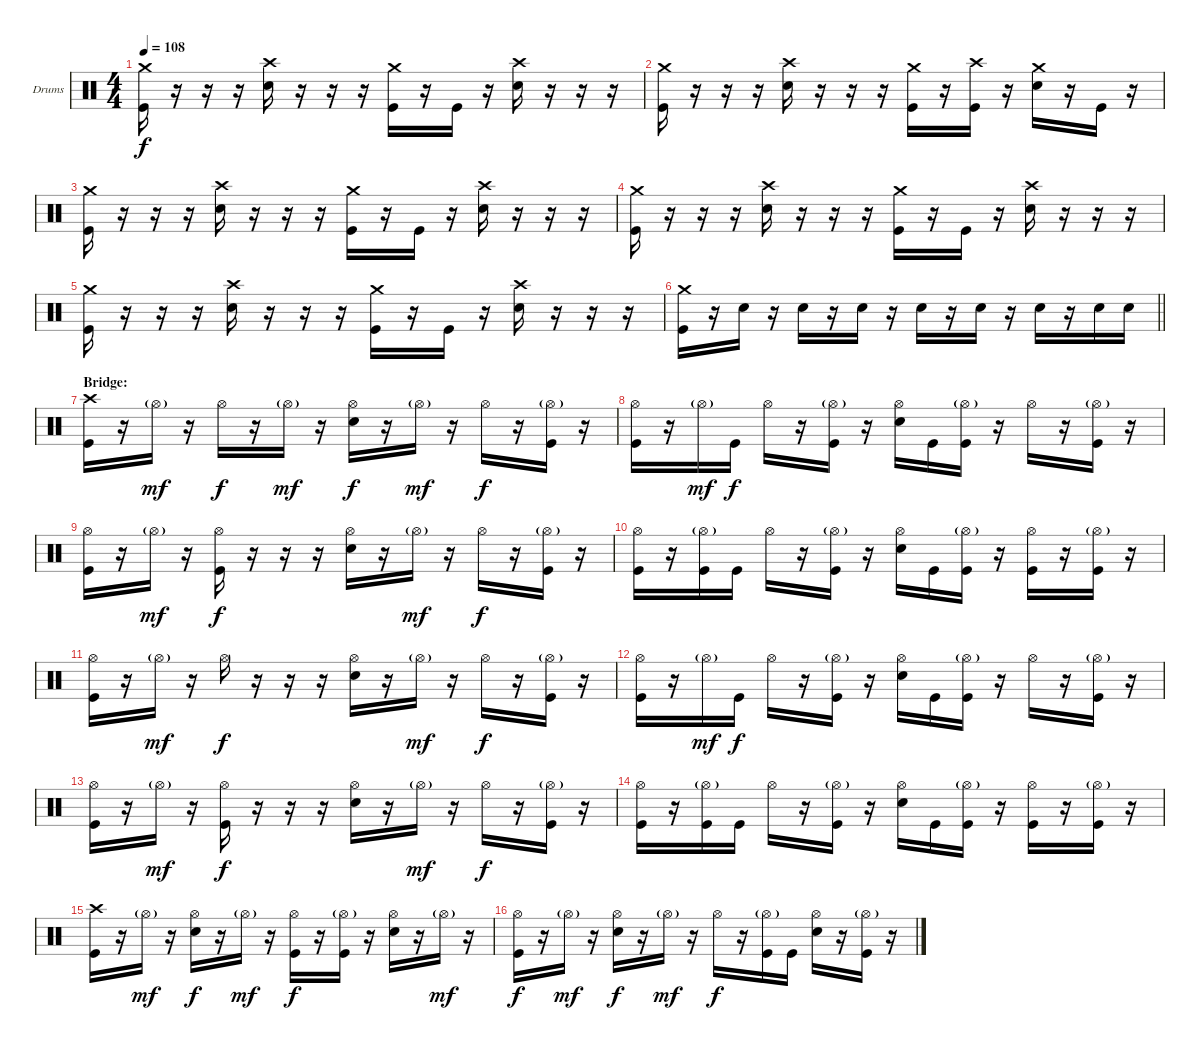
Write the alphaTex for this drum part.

\bracketExtendMode groupsimilarinstruments
\firstSystemTrackNameOrientation horizontal
\otherSystemsTrackNameOrientation horizontal
\track ("Drumkit" "Drums") {instrument percussion}
\staff {score}
\articulation defaults
\ts (4 4)
\tempo 108
\clef neutral
\ks c
("Kick (hit)" "Crash medium (hit)").16{dy f} r.16 r.16 r.16 ("Snare (hit) 2" "Crash high (hit)").16 r.16 r.16 r.16 ("Kick (hit)" "Crash medium (hit)").16 r.16 "Kick (hit)".16 r.16 ("Snare (hit) 2" "Crash high (hit)").16 r.16 r.16 r.16 |
("Kick (hit)" "Crash medium (hit)").16 r.16 r.16 r.16 ("Snare (hit) 2" "Crash high (hit)").16 r.16 r.16 r.16 ("Kick (hit)" "Crash medium (hit)").16 r.16 ("Kick (hit)" "Crash high (hit)").16 r.16 ("Snare (hit) 2" "Crash medium (hit)").16 r.16 "Kick (hit)".16 r.16 |
("Kick (hit)" "Crash medium (hit)").16 r.16 r.16 r.16 ("Snare (hit) 2" "Crash high (hit)").16 r.16 r.16 r.16 ("Kick (hit)" "Crash medium (hit)").16 r.16 "Kick (hit)".16 r.16 ("Snare (hit) 2" "Crash high (hit)").16 r.16 r.16 r.16 |
("Kick (hit)" "Crash medium (hit)").16 r.16 r.16 r.16 ("Snare (hit) 2" "Crash high (hit)").16 r.16 r.16 r.16 ("Kick (hit)" "Crash medium (hit)").16 r.16 "Kick (hit)".16 r.16 ("Snare (hit) 2" "Crash high (hit)").16 r.16 r.16 r.16 |
("Kick (hit)" "Crash medium (hit)").16 r.16 r.16 r.16 ("Snare (hit) 2" "Crash high (hit)").16 r.16 r.16 r.16 ("Kick (hit)" "Crash medium (hit)").16 r.16 "Kick (hit)".16 r.16 ("Snare (hit) 2" "Crash high (hit)").16 r.16 r.16 r.16 |
\barLineRight lightlight
("Kick (hit)" "Crash medium (hit)").16 r.16 "Snare (hit) 2".16 r.16 "Snare (hit) 2".16 r.16 "Snare (hit) 2".16 r.16 "Snare (hit) 2".16 r.16 "Snare (hit) 2".16 r.16 "Snare (hit) 2".16 r.16 "Snare (hit) 2".16 "Snare (hit) 2".16 |
\section ("" "Bridge:")
("Kick (hit)" "Crash high (hit)").16 r.16 "Hi-Hat (open)"{g}.16{dy mf} r.16 "Hi-Hat (open)".16{dy f} r.16 "Hi-Hat (open)"{g}.16{dy mf} r.16 ("Snare (hit) 2" "Hi-Hat (open)").16{dy f} r.16 "Hi-Hat (open)"{g}.16{dy mf} r.16 "Hi-Hat (open)".16{dy f} r.16 ("Kick (hit)" "Hi-Hat (open)"{g}).16 r.16 |
("Kick (hit)" "Hi-Hat (open)").16 r.16 "Hi-Hat (open)"{g}.16{dy mf} "Kick (hit)".16{dy f} "Hi-Hat (open)".16 r.16 ("Kick (hit)" "Hi-Hat (open)"{g}).16 r.16 ("Snare (hit) 2" "Hi-Hat (open)").16 "Kick (hit)".16 ("Kick (hit)" "Hi-Hat (open)"{g}).16 r.16 "Hi-Hat (open)".16 r.16 ("Kick (hit)" "Hi-Hat (open)"{g}).16 r.16 |
("Kick (hit)" "Hi-Hat (open)").16 r.16 "Hi-Hat (open)"{g}.16{dy mf} r.16 ("Kick (hit)" "Hi-Hat (open)").16{dy f} r.16 r.16 r.16 ("Snare (hit) 2" "Hi-Hat (open)").16 r.16 "Hi-Hat (open)"{g}.16{dy mf} r.16 "Hi-Hat (open)".16{dy f} r.16 ("Kick (hit)" "Hi-Hat (open)"{g}).16 r.16 |
("Kick (hit)" "Hi-Hat (open)").16 r.16 ("Kick (hit)" "Hi-Hat (open)"{g}).16 "Kick (hit)".16 "Hi-Hat (open)".16 r.16 ("Kick (hit)" "Hi-Hat (open)"{g}).16 r.16 ("Snare (hit) 2" "Hi-Hat (open)").16 "Kick (hit)".16 ("Kick (hit)" "Hi-Hat (open)"{g}).16 r.16 ("Kick (hit)" "Hi-Hat (open)").16 r.16 ("Kick (hit)" "Hi-Hat (open)"{g}).16 r.16 |
("Kick (hit)" "Hi-Hat (open)").16 r.16 "Hi-Hat (open)"{g}.16{dy mf} r.16 "Hi-Hat (open)".16{dy f} r.16 r.16 r.16 ("Snare (hit) 2" "Hi-Hat (open)").16 r.16 "Hi-Hat (open)"{g}.16{dy mf} r.16 "Hi-Hat (open)".16{dy f} r.16 ("Kick (hit)" "Hi-Hat (open)"{g}).16 r.16 |
("Kick (hit)" "Hi-Hat (open)").16 r.16 "Hi-Hat (open)"{g}.16{dy mf} "Kick (hit)".16{dy f} "Hi-Hat (open)".16 r.16 ("Kick (hit)" "Hi-Hat (open)"{g}).16 r.16 ("Snare (hit) 2" "Hi-Hat (open)").16 "Kick (hit)".16 ("Kick (hit)" "Hi-Hat (open)"{g}).16 r.16 "Hi-Hat (open)".16 r.16 ("Kick (hit)" "Hi-Hat (open)"{g}).16 r.16 |
("Kick (hit)" "Hi-Hat (open)").16 r.16 "Hi-Hat (open)"{g}.16{dy mf} r.16 ("Kick (hit)" "Hi-Hat (open)").16{dy f} r.16 r.16 r.16 ("Snare (hit) 2" "Hi-Hat (open)").16 r.16 "Hi-Hat (open)"{g}.16{dy mf} r.16 "Hi-Hat (open)".16{dy f} r.16 ("Kick (hit)" "Hi-Hat (open)"{g}).16 r.16 |
("Kick (hit)" "Hi-Hat (open)").16 r.16 ("Kick (hit)" "Hi-Hat (open)"{g}).16 "Kick (hit)".16 "Hi-Hat (open)".16 r.16 ("Kick (hit)" "Hi-Hat (open)"{g}).16 r.16 ("Snare (hit) 2" "Hi-Hat (open)").16 "Kick (hit)".16 ("Kick (hit)" "Hi-Hat (open)"{g}).16 r.16 ("Kick (hit)" "Hi-Hat (open)").16 r.16 ("Kick (hit)" "Hi-Hat (open)"{g}).16 r.16 |
("Kick (hit)" "Crash high (hit)").16 r.16 "Hi-Hat (open)"{g}.16{dy mf} r.16 ("Snare (hit) 2" "Hi-Hat (open)").16{dy f} r.16 "Hi-Hat (open)"{g}.16{dy mf} r.16 ("Kick (hit)" "Hi-Hat (open)").16{dy f} r.16 ("Kick (hit)" "Hi-Hat (open)"{g}).16 r.16 ("Snare (hit) 2" "Hi-Hat (open)").16 r.16 "Hi-Hat (open)"{g}.16{dy mf} r.16 |
("Kick (hit)" "Hi-Hat (open)").16{dy f} r.16 "Hi-Hat (open)"{g}.16{dy mf} r.16 ("Snare (hit) 2" "Hi-Hat (open)").16{dy f} r.16 "Hi-Hat (open)"{g}.16{dy mf} r.16 "Hi-Hat (open)".16{dy f} r.16 ("Kick (hit)" "Hi-Hat (open)"{g}).16 "Kick (hit)".16 ("Snare (hit) 2" "Hi-Hat (open)").16 r.16 ("Kick (hit)" "Hi-Hat (open)"{g}).16 r.16
